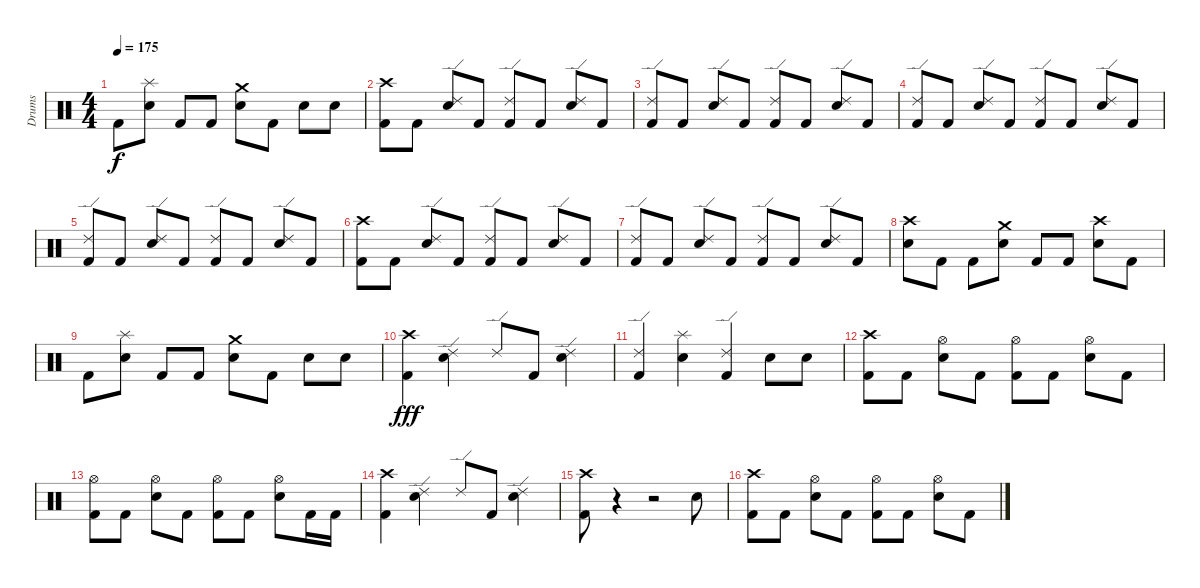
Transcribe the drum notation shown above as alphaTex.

\track ("Drums" "Drums") {instrument percussion}
\staff {score}
\articulation defaults
\ts (4 4)
\tempo 175
\clef neutral
\ks c "Kick (hit) 2".8{dy f}
("Electric Snare (hit)" "Splash (hit)").8 "Kick (hit) 2".8 "Kick (hit) 2".8 ("Electric Snare (hit)" "Crash medium (hit)").8 "Kick (hit) 2".8 "Electric Snare (hit)".8 "Electric Snare (hit)".8 |
("Kick (hit) 2" "Crash high (hit)").8 "Kick (hit) 2".8 ("Electric Snare (hit)" "Ride (edge) 2").8 "Kick (hit) 2".8 ("Kick (hit) 2" "Ride (edge) 2").8 "Kick (hit) 2".8 ("Electric Snare (hit)" "Ride (edge) 2").8 "Kick (hit) 2".8 |
("Kick (hit) 2" "Ride (edge) 2").8 "Kick (hit) 2".8 ("Electric Snare (hit)" "Ride (edge) 2").8 "Kick (hit) 2".8 ("Kick (hit) 2" "Ride (edge) 2").8 "Kick (hit) 2".8 ("Electric Snare (hit)" "Ride (edge) 2").8 "Kick (hit) 2".8 |
("Kick (hit) 2" "Ride (edge) 2").8 "Kick (hit) 2".8 ("Electric Snare (hit)" "Ride (edge) 2").8 "Kick (hit) 2".8 ("Kick (hit) 2" "Ride (edge) 2").8 "Kick (hit) 2".8 ("Electric Snare (hit)" "Ride (edge) 2").8 "Kick (hit) 2".8 |
("Kick (hit) 2" "Ride (edge) 2").8 "Kick (hit) 2".8 ("Electric Snare (hit)" "Ride (edge) 2").8 "Kick (hit) 2".8 ("Kick (hit) 2" "Ride (edge) 2").8 "Kick (hit) 2".8 ("Electric Snare (hit)" "Ride (edge) 2").8 "Kick (hit) 2".8 |
("Kick (hit) 2" "Crash high (hit)").8 "Kick (hit) 2".8 ("Electric Snare (hit)" "Ride (edge) 2").8 "Kick (hit) 2".8 ("Kick (hit) 2" "Ride (edge) 2").8 "Kick (hit) 2".8 ("Electric Snare (hit)" "Ride (edge) 2").8 "Kick (hit) 2".8 |
("Kick (hit) 2" "Ride (edge) 2").8 "Kick (hit) 2".8 ("Electric Snare (hit)" "Ride (edge) 2").8 "Kick (hit) 2".8 ("Kick (hit) 2" "Ride (edge) 2").8 "Kick (hit) 2".8 ("Electric Snare (hit)" "Ride (edge) 2").8 "Kick (hit) 2".8 |
("Electric Snare (hit)" "Crash high (hit)").8 "Kick (hit) 2".8 "Kick (hit) 2".8 ("Electric Snare (hit)" "Crash medium (hit)").8 "Kick (hit) 2".8 "Kick (hit) 2".8 ("Electric Snare (hit)" "Crash high (hit)").8 "Kick (hit) 2".8 |
"Kick (hit) 2".8 ("Electric Snare (hit)" "Splash (hit)").8 "Kick (hit) 2".8 "Kick (hit) 2".8 ("Electric Snare (hit)" "Crash medium (hit)").8 "Kick (hit) 2".8 "Electric Snare (hit)".8 "Electric Snare (hit)".8 |
("Kick (hit) 2" "Crash high (hit)").4{dy fff} ("Electric Snare (hit)" "Ride (edge) 2").4 "Ride (edge) 2".8 "Kick (hit) 2".8 ("Electric Snare (hit)" "Ride (edge) 2").4 |
("Kick (hit) 2" "Ride (edge) 2").4 ("Electric Snare (hit)" "Splash (hit)").4 ("Kick (hit) 2" "Ride (edge) 2").4 "Electric Snare (hit)".8 "Electric Snare (hit)".8 |
("Kick (hit) 2" "Crash high (hit)").8 "Kick (hit) 2".8 ("Electric Snare (hit)" "Hi-Hat (open)").8 "Kick (hit) 2".8 ("Kick (hit) 2" "Hi-Hat (open)").8 "Kick (hit) 2".8 ("Electric Snare (hit)" "Hi-Hat (open)").8 "Kick (hit) 2".8 |
("Kick (hit) 2" "Hi-Hat (open)").8 "Kick (hit) 2".8 ("Electric Snare (hit)" "Hi-Hat (open)").8 "Kick (hit) 2".8 ("Kick (hit) 2" "Hi-Hat (open)").8 "Kick (hit) 2".8 ("Electric Snare (hit)" "Hi-Hat (open)").8 "Kick (hit) 2".16 "Kick (hit) 2".16 |
("Kick (hit) 2" "Crash high (hit)").4 ("Electric Snare (hit)" "Ride (edge) 2").4 "Ride (edge) 2".8 "Kick (hit) 2".8 ("Electric Snare (hit)" "Ride (edge) 2").4 |
("Kick (hit) 2" "Crash high (hit)").8 r.4 r.2 "Electric Snare (hit)".8 |
("Kick (hit) 2" "Crash high (hit)").8 "Kick (hit) 2".8 ("Electric Snare (hit)" "Hi-Hat (open)").8 "Kick (hit) 2".8 ("Kick (hit) 2" "Hi-Hat (open)").8 "Kick (hit) 2".8 ("Electric Snare (hit)" "Hi-Hat (open)").8 "Kick (hit) 2".8
